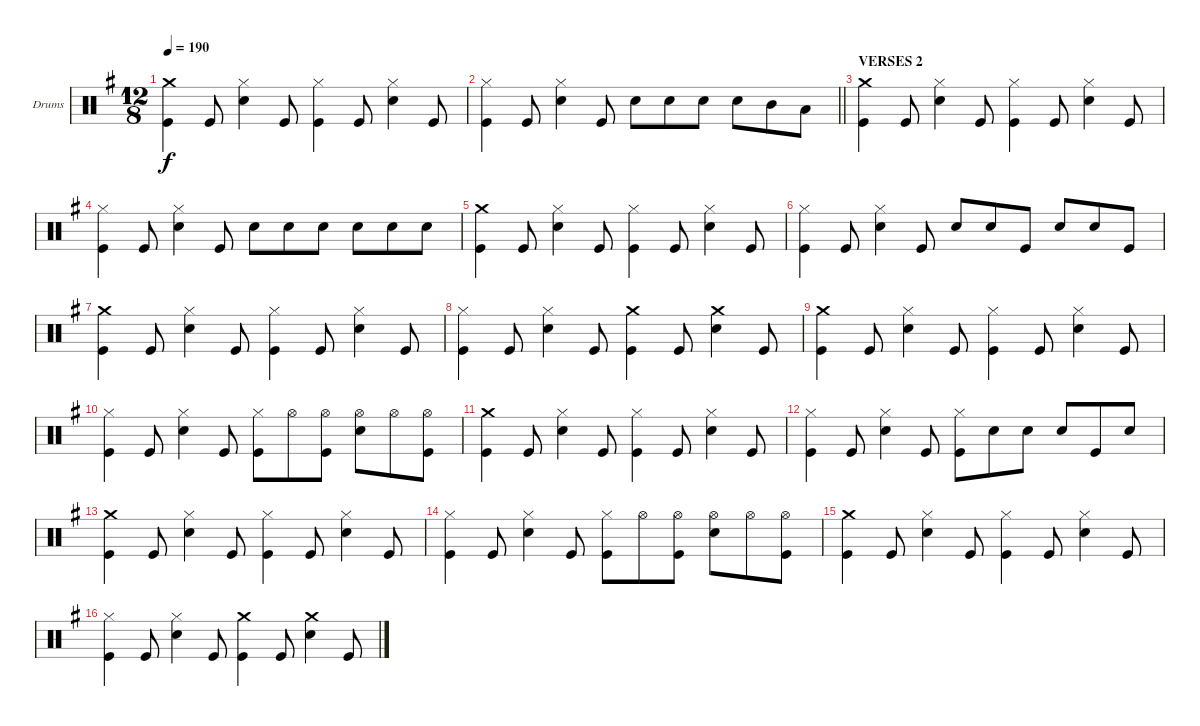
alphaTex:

\bracketExtendMode groupsimilarinstruments
\firstSystemTrackNameOrientation horizontal
\otherSystemsTrackNameOrientation horizontal
\track ("Drumkit" "Drums") {instrument percussion}
\staff {score}
\articulation defaults
\ts (12 8)
\tempo 190
\clef neutral
\ks eminor
("Crash medium (hit)" "Kick (hit)").4{dy f} "Kick (hit)".8 ("Hi-Hat (closed)" "Snare (hit) 2").4 "Kick (hit)".8 ("Hi-Hat (closed)" "Kick (hit)").4 "Kick (hit)".8 ("Hi-Hat (closed)" "Snare (hit) 2").4 "Kick (hit)".8 |
\barLineRight lightlight
("Hi-Hat (closed)" "Kick (hit)").4 "Kick (hit)".8 ("Hi-Hat (closed)" "Snare (hit) 2").4 "Kick (hit)".8 "Snare (hit) 2".8 "Snare (hit) 2".8 "Snare (hit) 2".8 "Snare (hit) 2".8 "Mid Tom (hit)".8 "Low Tom (hit)".8 |
\section ("" "VERSES 2")
("Crash medium (hit)" "Kick (hit)").4 "Kick (hit)".8 ("Hi-Hat (closed)" "Snare (hit) 2").4 "Kick (hit)".8 ("Hi-Hat (closed)" "Kick (hit)").4 "Kick (hit)".8 ("Hi-Hat (closed)" "Snare (hit) 2").4 "Kick (hit)".8 |
("Hi-Hat (closed)" "Kick (hit)").4 "Kick (hit)".8 ("Hi-Hat (closed)" "Snare (hit) 2").4 "Kick (hit)".8 "Snare (hit) 2".8 "Snare (hit) 2".8 "Snare (hit) 2".8 "Snare (hit) 2".8 "Snare (hit) 2".8 "Snare (hit) 2".8 |
("Crash medium (hit)" "Kick (hit)").4 "Kick (hit)".8 ("Hi-Hat (closed)" "Snare (hit) 2").4 "Kick (hit)".8 ("Hi-Hat (closed)" "Kick (hit)").4 "Kick (hit)".8 ("Hi-Hat (closed)" "Snare (hit) 2").4 "Kick (hit)".8 |
("Hi-Hat (closed)" "Kick (hit)").4 "Kick (hit)".8 ("Hi-Hat (closed)" "Snare (hit) 2").4 "Kick (hit)".8 "Snare (hit) 2".8 "Snare (hit) 2".8 "Kick (hit)".8 "Snare (hit) 2".8 "Snare (hit) 2".8 "Kick (hit)".8 |
("Crash medium (hit)" "Kick (hit)").4 "Kick (hit)".8 ("Hi-Hat (closed)" "Snare (hit) 2").4 "Kick (hit)".8 ("Hi-Hat (closed)" "Kick (hit)").4 "Kick (hit)".8 ("Hi-Hat (closed)" "Snare (hit) 2").4 "Kick (hit)".8 |
("Hi-Hat (closed)" "Kick (hit)").4 "Kick (hit)".8 ("Hi-Hat (closed)" "Snare (hit) 2").4 "Kick (hit)".8 ("Crash medium (hit)" "Kick (hit)").4 "Kick (hit)".8 ("Crash medium (hit)" "Snare (hit) 2").4 "Kick (hit)".8 |
("Crash medium (hit)" "Kick (hit)").4 "Kick (hit)".8 ("Hi-Hat (closed)" "Snare (hit) 2").4 "Kick (hit)".8 ("Hi-Hat (closed)" "Kick (hit)").4 "Kick (hit)".8 ("Hi-Hat (closed)" "Snare (hit) 2").4 "Kick (hit)".8 |
("Hi-Hat (closed)" "Kick (hit)").4 "Kick (hit)".8 ("Hi-Hat (closed)" "Snare (hit) 2").4 "Kick (hit)".8 ("Hi-Hat (closed)" "Kick (hit)").8 "Hi-Hat (open)".8 ("Hi-Hat (open)" "Kick (hit)").8 ("Hi-Hat (open)" "Snare (hit) 2").8 "Hi-Hat (open)".8 ("Hi-Hat (open)" "Kick (hit)").8 |
("Crash medium (hit)" "Kick (hit)").4 "Kick (hit)".8 ("Hi-Hat (closed)" "Snare (hit) 2").4 "Kick (hit)".8 ("Hi-Hat (closed)" "Kick (hit)").4 "Kick (hit)".8 ("Hi-Hat (closed)" "Snare (hit) 2").4 "Kick (hit)".8 |
("Hi-Hat (closed)" "Kick (hit)").4 "Kick (hit)".8 ("Hi-Hat (closed)" "Snare (hit) 2").4 "Kick (hit)".8 ("Hi-Hat (closed)" "Kick (hit)").8 "Snare (hit) 2".8 "Snare (hit) 2".8 "Snare (hit) 2".8 "Kick (hit)".8 "Snare (hit) 2".8 |
("Crash medium (hit)" "Kick (hit)").4 "Kick (hit)".8 ("Hi-Hat (closed)" "Snare (hit) 2").4 "Kick (hit)".8 ("Hi-Hat (closed)" "Kick (hit)").4 "Kick (hit)".8 ("Hi-Hat (closed)" "Snare (hit) 2").4 "Kick (hit)".8 |
("Hi-Hat (closed)" "Kick (hit)").4 "Kick (hit)".8 ("Hi-Hat (closed)" "Snare (hit) 2").4 "Kick (hit)".8 ("Hi-Hat (closed)" "Kick (hit)").8 "Hi-Hat (open)".8 ("Hi-Hat (open)" "Kick (hit)").8 ("Hi-Hat (open)" "Snare (hit) 2").8 "Hi-Hat (open)".8 ("Hi-Hat (open)" "Kick (hit)").8 |
("Crash medium (hit)" "Kick (hit)").4 "Kick (hit)".8 ("Hi-Hat (closed)" "Snare (hit) 2").4 "Kick (hit)".8 ("Hi-Hat (closed)" "Kick (hit)").4 "Kick (hit)".8 ("Hi-Hat (closed)" "Snare (hit) 2").4 "Kick (hit)".8 |
("Hi-Hat (closed)" "Kick (hit)").4 "Kick (hit)".8 ("Hi-Hat (closed)" "Snare (hit) 2").4 "Kick (hit)".8 ("Crash medium (hit)" "Kick (hit)").4 "Kick (hit)".8 ("Crash medium (hit)" "Snare (hit) 2").4 "Kick (hit)".8
